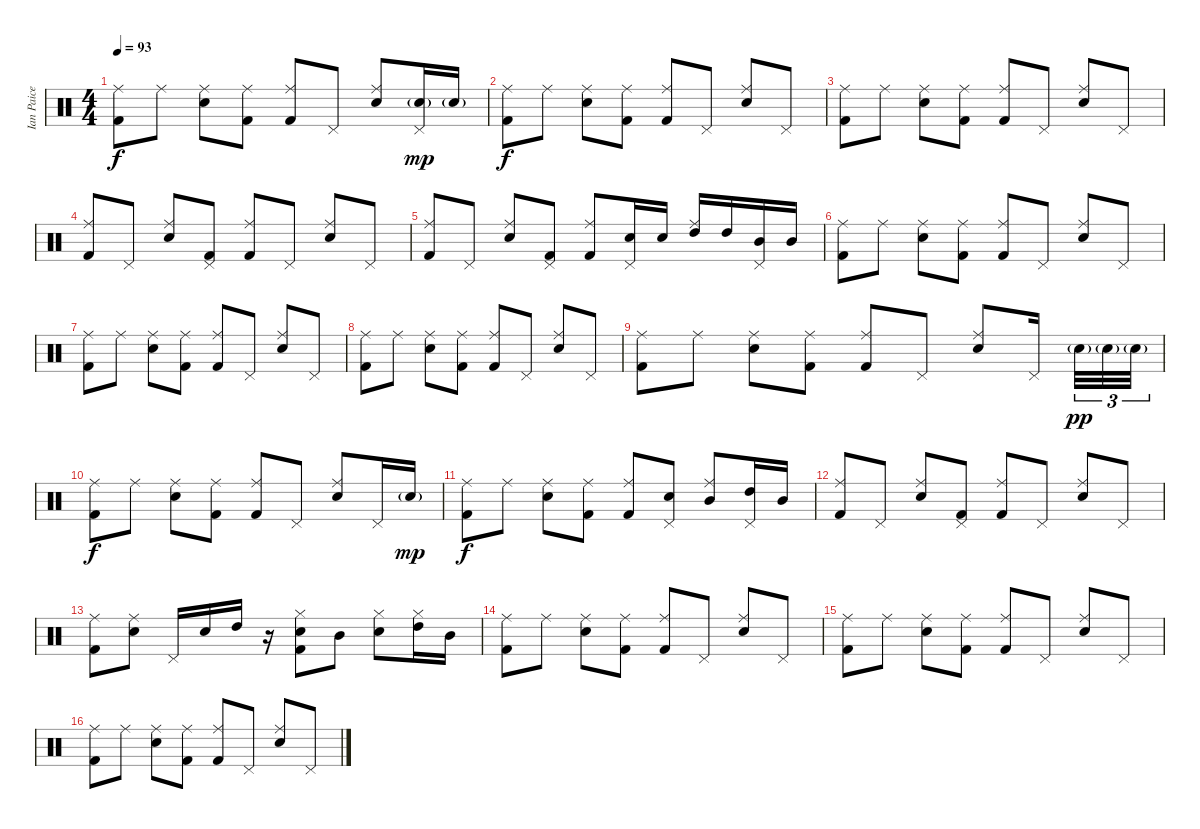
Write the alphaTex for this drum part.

\track ("Ian Paice (drums)" "Ian Paice ") {instrument percussion}
\staff {score}
\articulation defaults
\ts (4 4)
\tempo 93
\clef neutral
\ks c
("Ride (middle)" "Kick (hit) 2").8{dy f} "Ride (middle)".8 ("Ride (middle)" "Electric Snare (hit)").8 ("Ride (middle)" "Kick (hit) 2").8 ("Ride (middle)" "Kick (hit) 2").8 "Pedal Hi-Hat (hit)".8 ("Ride (middle)" "Electric Snare (hit)").8 ("Pedal Hi-Hat (hit)" "Electric Snare (hit)"{g}).16{dy mp} "Electric Snare (hit)"{g}.16 |
("Ride (middle)" "Kick (hit) 2").8{dy f} "Ride (middle)".8 ("Ride (middle)" "Electric Snare (hit)").8 ("Ride (middle)" "Kick (hit) 2").8 ("Ride (middle)" "Kick (hit) 2").8 "Pedal Hi-Hat (hit)".8 ("Ride (middle)" "Electric Snare (hit)").8 "Pedal Hi-Hat (hit)".8 |
("Ride (middle)" "Kick (hit) 2").8 "Ride (middle)".8 ("Ride (middle)" "Electric Snare (hit)").8 ("Ride (middle)" "Kick (hit) 2").8 ("Ride (middle)" "Kick (hit) 2").8 "Pedal Hi-Hat (hit)".8 ("Ride (middle)" "Electric Snare (hit)").8 "Pedal Hi-Hat (hit)".8 |
("Ride (middle)" "Kick (hit) 2").8 "Pedal Hi-Hat (hit)".8 ("Ride (middle)" "Electric Snare (hit)").8 ("Pedal Hi-Hat (hit)" "Kick (hit) 2").8 ("Ride (middle)" "Kick (hit) 2").8 "Pedal Hi-Hat (hit)".8 ("Ride (middle)" "Electric Snare (hit)").8 "Pedal Hi-Hat (hit)".8 |
("Ride (middle)" "Kick (hit) 2").8 "Pedal Hi-Hat (hit)".8 ("Ride (middle)" "Electric Snare (hit)").8 ("Pedal Hi-Hat (hit)" "Kick (hit) 2").8 ("Ride (middle)" "Kick (hit) 2").8 ("Pedal Hi-Hat (hit)" "Electric Snare (hit)").16 "Electric Snare (hit)".16 ("Ride (middle)" "High Tom (hit)").16 "High Tom (hit)".16 ("Pedal Hi-Hat (hit)" "Mid Tom (hit)").16 "Mid Tom (hit)".16 |
("Ride (middle)" "Kick (hit) 2").8 "Ride (middle)".8 ("Ride (middle)" "Electric Snare (hit)").8 ("Ride (middle)" "Kick (hit) 2").8 ("Ride (middle)" "Kick (hit) 2").8 "Pedal Hi-Hat (hit)".8 ("Ride (middle)" "Electric Snare (hit)").8 "Pedal Hi-Hat (hit)".8 |
("Ride (middle)" "Kick (hit) 2").8 "Ride (middle)".8 ("Ride (middle)" "Electric Snare (hit)").8 ("Ride (middle)" "Kick (hit) 2").8 ("Ride (middle)" "Kick (hit) 2").8 "Pedal Hi-Hat (hit)".8 ("Ride (middle)" "Electric Snare (hit)").8 "Pedal Hi-Hat (hit)".8 |
("Ride (middle)" "Kick (hit) 2").8 "Ride (middle)".8 ("Ride (middle)" "Electric Snare (hit)").8 ("Ride (middle)" "Kick (hit) 2").8 ("Ride (middle)" "Kick (hit) 2").8 "Pedal Hi-Hat (hit)".8 ("Ride (middle)" "Electric Snare (hit)").8 "Pedal Hi-Hat (hit)".8 |
("Ride (middle)" "Kick (hit) 2").8 "Ride (middle)".8 ("Ride (middle)" "Electric Snare (hit)").8 ("Ride (middle)" "Kick (hit) 2").8 ("Ride (middle)" "Kick (hit) 2").8 "Pedal Hi-Hat (hit)".8 ("Ride (middle)" "Electric Snare (hit)").8 "Pedal Hi-Hat (hit)".16 "Electric Snare (hit)"{g}.32{tu (3 2) dy pp} "Electric Snare (hit)"{g}.32{tu (3 2)} "Electric Snare (hit)"{g}.32{tu (3 2)} |
("Ride (middle)" "Kick (hit) 2").8{dy f} "Ride (middle)".8 ("Ride (middle)" "Electric Snare (hit)").8 ("Ride (middle)" "Kick (hit) 2").8 ("Ride (middle)" "Kick (hit) 2").8 "Pedal Hi-Hat (hit)".8 ("Ride (middle)" "Electric Snare (hit)").8 "Pedal Hi-Hat (hit)".16 "Electric Snare (hit)"{g}.16{dy mp} |
("Ride (middle)" "Kick (hit) 2").8{dy f} "Ride (middle)".8 ("Ride (middle)" "Electric Snare (hit)").8 ("Ride (middle)" "Kick (hit) 2").8 ("Ride (middle)" "Kick (hit) 2").8 ("Pedal Hi-Hat (hit)" "Electric Snare (hit)").8 ("Ride (middle)" "Mid Tom (hit)").8 ("Pedal Hi-Hat (hit)" "High Tom (hit)").16 "Mid Tom (hit)".16 |
("Ride (middle)" "Kick (hit) 2").8 "Pedal Hi-Hat (hit)".8 ("Ride (middle)" "Electric Snare (hit)").8 ("Pedal Hi-Hat (hit)" "Kick (hit) 2").8 ("Ride (middle)" "Kick (hit) 2").8 "Pedal Hi-Hat (hit)".8 ("Ride (middle)" "Electric Snare (hit)").8 "Pedal Hi-Hat (hit)".8 |
("Ride (middle)" "Kick (hit) 2").8 ("Ride (middle)" "Electric Snare (hit)").8 "Pedal Hi-Hat (hit)".16 "Electric Snare (hit)".16 "High Tom (hit)".16 r.16 ("Hi-Hat (closed)" "Electric Snare (hit)" "Kick (hit) 2").8 "Mid Tom (hit)".8 ("Hi-Hat (closed)" "Electric Snare (hit)").8 ("Hi-Hat (closed)" "High Tom (hit)").16 "Mid Tom (hit)".16 |
("Ride (middle)" "Kick (hit) 2").8 "Ride (middle)".8 ("Ride (middle)" "Electric Snare (hit)").8 ("Ride (middle)" "Kick (hit) 2").8 ("Ride (middle)" "Kick (hit) 2").8 "Pedal Hi-Hat (hit)".8 ("Ride (middle)" "Electric Snare (hit)").8 "Pedal Hi-Hat (hit)".8 |
("Ride (middle)" "Kick (hit) 2").8 "Ride (middle)".8 ("Ride (middle)" "Electric Snare (hit)").8 ("Ride (middle)" "Kick (hit) 2").8 ("Ride (middle)" "Kick (hit) 2").8 "Pedal Hi-Hat (hit)".8 ("Ride (middle)" "Electric Snare (hit)").8 "Pedal Hi-Hat (hit)".8 |
("Ride (middle)" "Kick (hit) 2").8 "Ride (middle)".8 ("Ride (middle)" "Electric Snare (hit)").8 ("Ride (middle)" "Kick (hit) 2").8 ("Ride (middle)" "Kick (hit) 2").8 "Pedal Hi-Hat (hit)".8 ("Ride (middle)" "Electric Snare (hit)").8 "Pedal Hi-Hat (hit)".8
